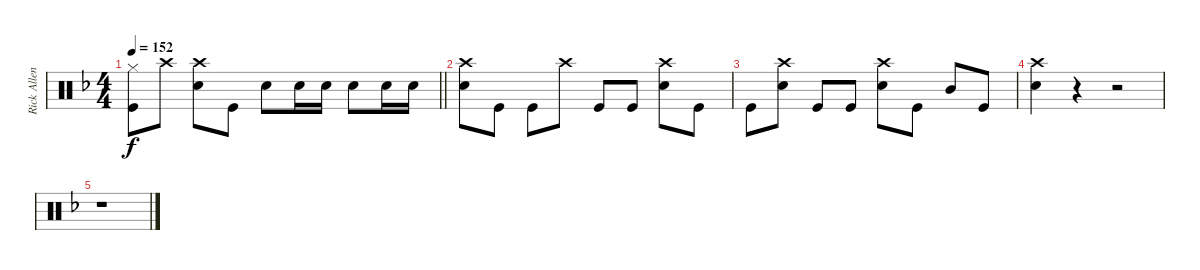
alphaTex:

\track ("Rick Allen" "Rick Allen") {instrument percussion}
\staff {score}
\articulation defaults
\ts (4 4)
\tempo 152
\clef neutral
\barLineRight lightlight
\ks dminor
("Hi-Hat (closed)" "Kick (hit)").8{dy f} "Crash high (hit)".8 ("Crash high (hit)" "Snare (hit) 2").8 "Kick (hit)".8 "Snare (hit) 2".8 "Snare (hit) 2".16 "Snare (hit) 2".16 "Snare (hit) 2".8 "Snare (hit) 2".16 "Snare (hit) 2".16 |
("Crash high (hit)" "Snare (hit) 2").8 "Kick (hit)".8 "Kick (hit)".8 "Crash high (hit)".8 "Kick (hit)".8 "Kick (hit)".8 ("Crash high (hit)" "Snare (hit) 2").8 "Kick (hit)".8 |
"Kick (hit)".8 ("Crash high (hit)" "Snare (hit) 2").8 "Kick (hit)".8 "Kick (hit)".8 ("Crash high (hit)" "Snare (hit) 2").8 "Kick (hit)".8 "Mid Tom (hit)".8 "Kick (hit)".8 |
("Crash high (hit)" "Snare (hit) 2").4 r.4 r.2 |
r.1
